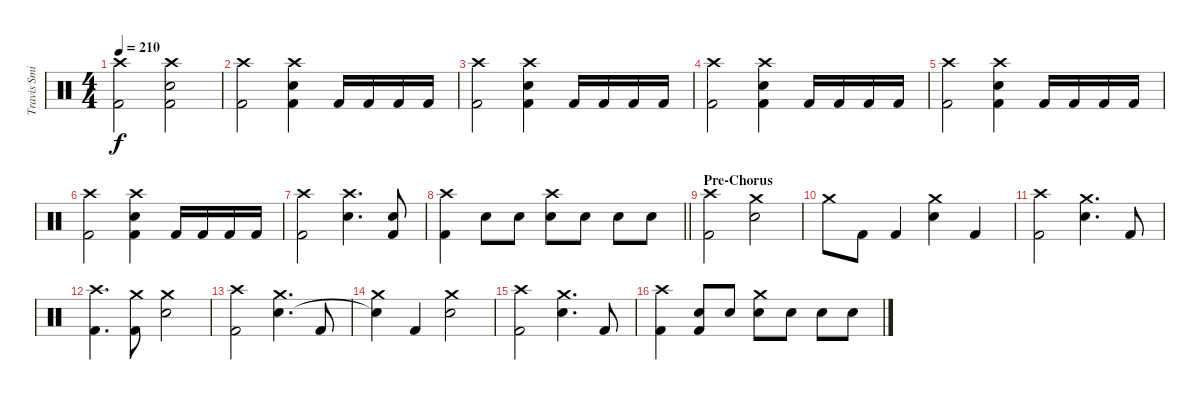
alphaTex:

\track ("Travis Smith" "Travis Smi") {instrument percussion}
\staff {score}
\articulation defaults
\ts (4 4)
\tempo 210
\clef neutral
\ks c
("Crash high (hit)" "Kick (hit) 2").2{dy f} ("Crash high (hit)" "Snare (hit) 2" "Kick (hit) 2").2 |
("Crash high (hit)" "Kick (hit) 2").2 ("Crash high (hit)" "Snare (hit) 2" "Kick (hit) 2").4 "Kick (hit) 2".16 "Kick (hit) 2".16 "Kick (hit) 2".16 "Kick (hit) 2".16 |
("Crash high (hit)" "Kick (hit) 2").2 ("Crash high (hit)" "Snare (hit) 2" "Kick (hit) 2").4 "Kick (hit) 2".16 "Kick (hit) 2".16 "Kick (hit) 2".16 "Kick (hit) 2".16 |
("Crash high (hit)" "Kick (hit) 2").2 ("Crash high (hit)" "Snare (hit) 2" "Kick (hit) 2").4 "Kick (hit) 2".16 "Kick (hit) 2".16 "Kick (hit) 2".16 "Kick (hit) 2".16 |
("Crash high (hit)" "Kick (hit) 2").2 ("Crash high (hit)" "Snare (hit) 2" "Kick (hit) 2").4 "Kick (hit) 2".16 "Kick (hit) 2".16 "Kick (hit) 2".16 "Kick (hit) 2".16 |
("Crash high (hit)" "Kick (hit) 2").2 ("Crash high (hit)" "Snare (hit) 2" "Kick (hit) 2").4 "Kick (hit) 2".16 "Kick (hit) 2".16 "Kick (hit) 2".16 "Kick (hit) 2".16 |
("Crash high (hit)" "Kick (hit) 2").2 ("Crash high (hit)" "Snare (hit) 2").4{d} ("Snare (hit) 2" "Kick (hit) 2").8 |
\barLineRight lightlight
("Crash high (hit)" "Kick (hit) 2").4 "Snare (hit) 2".8 "Snare (hit) 2".8 ("Crash high (hit)" "Snare (hit) 2").8 "Snare (hit) 2".8 "Snare (hit) 2".8 "Snare (hit) 2".8 |
\section ("" "Pre-Chorus")
("Crash high (hit)" "Kick (hit) 2").2 ("Crash medium (hit)" "Snare (hit) 2").2 |
"Crash medium (hit)".8 "Kick (hit) 2".8 "Kick (hit) 2".4 ("Crash medium (hit)" "Snare (hit) 2").4 "Kick (hit) 2".4 |
("Crash high (hit)" "Kick (hit) 2").2 ("Crash medium (hit)" "Snare (hit) 2").4{d} "Kick (hit) 2".8 |
("Crash high (hit)" "Kick (hit) 2").4{d} ("Crash medium (hit)" "Kick (hit) 2").8 ("Crash medium (hit)" "Snare (hit) 2").2 |
("Crash high (hit)" "Kick (hit) 2").2 ("Crash medium (hit)" "Snare (hit) 2").4{d} "Kick (hit) 2".8 |
("Crash medium (hit)" "Snare (hit)"{t}).4 "Kick (hit) 2".4 ("Crash medium (hit)" "Snare (hit) 2").2 |
("Crash high (hit)" "Kick (hit) 2").2 ("Crash medium (hit)" "Snare (hit) 2").4{d} "Kick (hit) 2".8 |
("Crash high (hit)" "Kick (hit) 2").4 ("Snare (hit) 2" "Kick (hit) 2").8 "Snare (hit) 2".8 ("Crash medium (hit)" "Snare (hit) 2").8 "Snare (hit) 2".8 "Snare (hit) 2".8 "Snare (hit) 2".8
